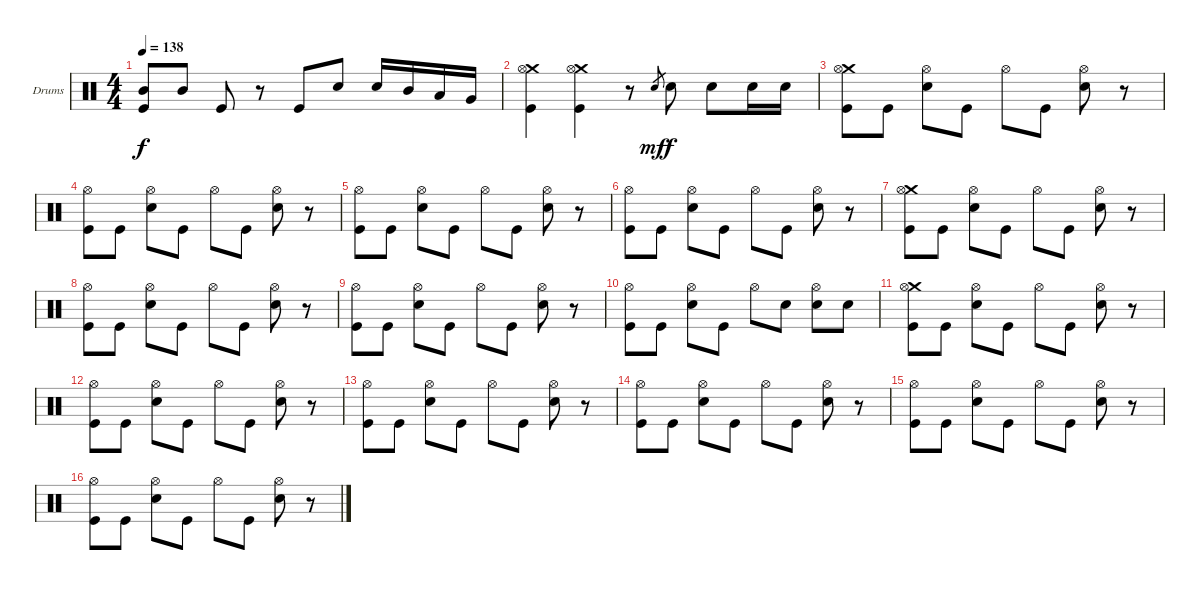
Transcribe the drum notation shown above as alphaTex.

\bracketExtendMode groupsimilarinstruments
\firstSystemTrackNameOrientation horizontal
\otherSystemsTrackNameOrientation horizontal
\track ("Drumkit" "Drums") {instrument percussion}
\staff {score}
\articulation defaults
\ts (4 4)
\tempo 138
\clef neutral
\ks c
("Mid Tom (hit)" "Kick (hit)").8{dy f} "Mid Tom (hit)".8 "Kick (hit)".8 r.8 "Kick (hit)".8 "Snare (hit) 2".8 "Snare (hit) 2".16 "Mid Tom (hit)".16 "Low Tom (hit)".16 "Very Low Tom (hit)".16 |
("Crash medium (hit)" "Hi-Hat (open)" "Kick (hit)").4 ("Crash medium (hit)" "Hi-Hat (open)" "Kick (hit)").4 r.8 "Snare (hit) 2".8{gr dy mf} "Snare (hit) 2".8{dy f} "Snare (hit) 2".8 "Snare (hit) 2".16 "Snare (hit) 2".16 |
("Crash medium (hit)" "Hi-Hat (open)" "Kick (hit)").8 "Kick (hit)".8 ("Snare (hit) 2" "Hi-Hat (open)").8 "Kick (hit)".8 "Hi-Hat (open)".8 "Kick (hit)".8 ("Snare (hit) 2" "Hi-Hat (open)").8 r.8 |
("Hi-Hat (open)" "Kick (hit)").8 "Kick (hit)".8 ("Snare (hit) 2" "Hi-Hat (open)").8 "Kick (hit)".8 "Hi-Hat (open)".8 "Kick (hit)".8 ("Snare (hit) 2" "Hi-Hat (open)").8 r.8 |
("Hi-Hat (open)" "Kick (hit)").8 "Kick (hit)".8 ("Snare (hit) 2" "Hi-Hat (open)").8 "Kick (hit)".8 "Hi-Hat (open)".8 "Kick (hit)".8 ("Snare (hit) 2" "Hi-Hat (open)").8 r.8 |
("Hi-Hat (open)" "Kick (hit)").8 "Kick (hit)".8 ("Snare (hit) 2" "Hi-Hat (open)").8 "Kick (hit)".8 "Hi-Hat (open)".8 "Kick (hit)".8 ("Snare (hit) 2" "Hi-Hat (open)").8 r.8 |
("Crash medium (hit)" "Hi-Hat (open)" "Kick (hit)").8 "Kick (hit)".8 ("Snare (hit) 2" "Hi-Hat (open)").8 "Kick (hit)".8 "Hi-Hat (open)".8 "Kick (hit)".8 ("Snare (hit) 2" "Hi-Hat (open)").8 r.8 |
("Hi-Hat (open)" "Kick (hit)").8 "Kick (hit)".8 ("Snare (hit) 2" "Hi-Hat (open)").8 "Kick (hit)".8 "Hi-Hat (open)".8 "Kick (hit)".8 ("Snare (hit) 2" "Hi-Hat (open)").8 r.8 |
("Hi-Hat (open)" "Kick (hit)").8 "Kick (hit)".8 ("Snare (hit) 2" "Hi-Hat (open)").8 "Kick (hit)".8 "Hi-Hat (open)".8 "Kick (hit)".8 ("Snare (hit) 2" "Hi-Hat (open)").8 r.8 |
("Hi-Hat (open)" "Kick (hit)").8 "Kick (hit)".8 ("Snare (hit) 2" "Hi-Hat (open)").8 "Kick (hit)".8 "Hi-Hat (open)".8 "Snare (hit) 2".8 ("Snare (hit) 2" "Hi-Hat (open)").8 "Snare (hit) 2".8 |
("Crash medium (hit)" "Hi-Hat (open)" "Kick (hit)").8 "Kick (hit)".8 ("Snare (hit) 2" "Hi-Hat (open)").8 "Kick (hit)".8 "Hi-Hat (open)".8 "Kick (hit)".8 ("Snare (hit) 2" "Hi-Hat (open)").8 r.8 |
("Hi-Hat (open)" "Kick (hit)").8 "Kick (hit)".8 ("Snare (hit) 2" "Hi-Hat (open)").8 "Kick (hit)".8 "Hi-Hat (open)".8 "Kick (hit)".8 ("Snare (hit) 2" "Hi-Hat (open)").8 r.8 |
("Hi-Hat (open)" "Kick (hit)").8 "Kick (hit)".8 ("Snare (hit) 2" "Hi-Hat (open)").8 "Kick (hit)".8 "Hi-Hat (open)".8 "Kick (hit)".8 ("Snare (hit) 2" "Hi-Hat (open)").8 r.8 |
("Hi-Hat (open)" "Kick (hit)").8 "Kick (hit)".8 ("Snare (hit) 2" "Hi-Hat (open)").8 "Kick (hit)".8 "Hi-Hat (open)".8 "Kick (hit)".8 ("Snare (hit) 2" "Hi-Hat (open)").8 r.8 |
("Hi-Hat (open)" "Kick (hit)").8 "Kick (hit)".8 ("Snare (hit) 2" "Hi-Hat (open)").8 "Kick (hit)".8 "Hi-Hat (open)".8 "Kick (hit)".8 ("Snare (hit) 2" "Hi-Hat (open)").8 r.8 |
("Hi-Hat (open)" "Kick (hit)").8 "Kick (hit)".8 ("Snare (hit) 2" "Hi-Hat (open)").8 "Kick (hit)".8 "Hi-Hat (open)".8 "Kick (hit)".8 ("Snare (hit) 2" "Hi-Hat (open)").8 r.8
